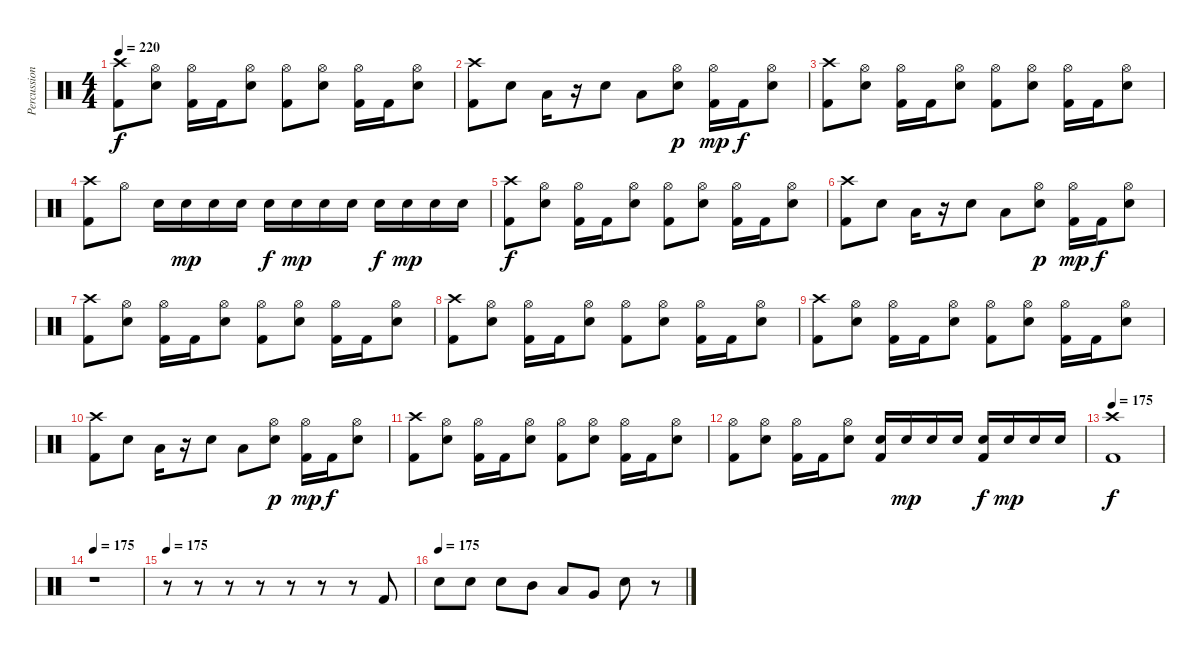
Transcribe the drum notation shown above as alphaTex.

\track ("Percussions" "Percussion") {instrument percussion}
\staff {score}
\articulation defaults
\ts (4 4)
\tempo 220
\clef neutral
\ks c
("Crash high (hit)" "Kick (hit) 2").8{dy f} ("Hi-Hat (open)" "Snare (hit) 2").8 ("Hi-Hat (open)" "Kick (hit) 2").16 "Kick (hit) 2".16 ("Hi-Hat (open)" "Snare (hit) 2").8 ("Hi-Hat (open)" "Kick (hit) 2").8 ("Hi-Hat (open)" "Snare (hit) 2").8 ("Hi-Hat (open)" "Kick (hit) 2").16 "Kick (hit) 2".16 ("Hi-Hat (open)" "Snare (hit) 2").8 |
("Crash high (hit)" "Kick (hit) 2").8 "Snare (hit) 2".8 "Low Tom (hit)".16 r.16 "Snare (hit) 2".8 "Low Tom (hit)".8 ("Hi-Hat (open)" "Snare (hit) 2").8{dy p} ("Hi-Hat (open)" "Kick (hit) 2").16{dy mp} "Kick (hit) 2".16{dy f} ("Hi-Hat (open)" "Snare (hit) 2").8 |
("Crash high (hit)" "Kick (hit) 2").8 ("Hi-Hat (open)" "Snare (hit) 2").8 ("Hi-Hat (open)" "Kick (hit) 2").16 "Kick (hit) 2".16 ("Hi-Hat (open)" "Snare (hit) 2").8 ("Hi-Hat (open)" "Kick (hit) 2").8 ("Hi-Hat (open)" "Snare (hit) 2").8 ("Hi-Hat (open)" "Kick (hit) 2").16 "Kick (hit) 2".16 ("Hi-Hat (open)" "Snare (hit) 2").8 |
("Crash high (hit)" "Kick (hit) 2").8 "Hi-Hat (open)".8 "Snare (hit) 2".16 "Snare (hit) 2".16{dy mp} "Snare (hit) 2".16 "Snare (hit) 2".16 "Snare (hit) 2".16{dy f} "Snare (hit) 2".16{dy mp} "Snare (hit) 2".16 "Snare (hit) 2".16 "Snare (hit) 2".16{dy f} "Snare (hit) 2".16{dy mp} "Snare (hit) 2".16 "Snare (hit) 2".16 |
("Crash high (hit)" "Kick (hit) 2").8{dy f} ("Hi-Hat (open)" "Snare (hit) 2").8 ("Hi-Hat (open)" "Kick (hit) 2").16 "Kick (hit) 2".16 ("Hi-Hat (open)" "Snare (hit) 2").8 ("Hi-Hat (open)" "Kick (hit) 2").8 ("Hi-Hat (open)" "Snare (hit) 2").8 ("Hi-Hat (open)" "Kick (hit) 2").16 "Kick (hit) 2".16 ("Hi-Hat (open)" "Snare (hit) 2").8 |
("Crash high (hit)" "Kick (hit) 2").8 "Snare (hit) 2".8 "Low Tom (hit)".16 r.16 "Snare (hit) 2".8 "Low Tom (hit)".8 ("Hi-Hat (open)" "Snare (hit) 2").8{dy p} ("Hi-Hat (open)" "Kick (hit) 2").16{dy mp} "Kick (hit) 2".16{dy f} ("Hi-Hat (open)" "Snare (hit) 2").8 |
("Crash high (hit)" "Kick (hit) 2").8 ("Hi-Hat (open)" "Snare (hit) 2").8 ("Hi-Hat (open)" "Kick (hit) 2").16 "Kick (hit) 2".16 ("Hi-Hat (open)" "Snare (hit) 2").8 ("Hi-Hat (open)" "Kick (hit) 2").8 ("Hi-Hat (open)" "Snare (hit) 2").8 ("Hi-Hat (open)" "Kick (hit) 2").16 "Kick (hit) 2".16 ("Hi-Hat (open)" "Snare (hit) 2").8 |
("Crash high (hit)" "Kick (hit) 2").8 ("Hi-Hat (open)" "Snare (hit) 2").8 ("Hi-Hat (open)" "Kick (hit) 2").16 "Kick (hit) 2".16 ("Hi-Hat (open)" "Snare (hit) 2").8 ("Hi-Hat (open)" "Kick (hit) 2").8 ("Hi-Hat (open)" "Snare (hit) 2").8 ("Hi-Hat (open)" "Kick (hit) 2").16 "Kick (hit) 2".16 ("Hi-Hat (open)" "Snare (hit) 2").8 |
("Crash high (hit)" "Kick (hit) 2").8 ("Hi-Hat (open)" "Snare (hit) 2").8 ("Hi-Hat (open)" "Kick (hit) 2").16 "Kick (hit) 2".16 ("Hi-Hat (open)" "Snare (hit) 2").8 ("Hi-Hat (open)" "Kick (hit) 2").8 ("Hi-Hat (open)" "Snare (hit) 2").8 ("Hi-Hat (open)" "Kick (hit) 2").16 "Kick (hit) 2".16 ("Hi-Hat (open)" "Snare (hit) 2").8 |
("Crash high (hit)" "Kick (hit) 2").8 "Snare (hit) 2".8 "Low Tom (hit)".16 r.16 "Snare (hit) 2".8 "Low Tom (hit)".8 ("Hi-Hat (open)" "Snare (hit) 2").8{dy p} ("Hi-Hat (open)" "Kick (hit) 2").16{dy mp} "Kick (hit) 2".16{dy f} ("Hi-Hat (open)" "Snare (hit) 2").8 |
("Crash high (hit)" "Kick (hit) 2").8 ("Hi-Hat (open)" "Snare (hit) 2").8 ("Hi-Hat (open)" "Kick (hit) 2").16 "Kick (hit) 2".16 ("Hi-Hat (open)" "Snare (hit) 2").8 ("Hi-Hat (open)" "Kick (hit) 2").8 ("Hi-Hat (open)" "Snare (hit) 2").8 ("Hi-Hat (open)" "Kick (hit) 2").16 "Kick (hit) 2".16 ("Hi-Hat (open)" "Snare (hit) 2").8 |
("Hi-Hat (open)" "Kick (hit) 2").8 ("Hi-Hat (open)" "Snare (hit) 2").8 ("Hi-Hat (open)" "Kick (hit) 2").16 "Kick (hit) 2".16 ("Hi-Hat (open)" "Snare (hit) 2").8 ("Snare (hit) 2" "Kick (hit) 2").16 "Snare (hit) 2".16{dy mp} "Snare (hit) 2".16 "Snare (hit) 2".16 ("Snare (hit) 2" "Kick (hit) 2").16{dy f} "Snare (hit) 2".16{dy mp} "Snare (hit) 2".16 "Snare (hit) 2".16 |
\tempo 180
\tempo 175
("Crash high (hit)" "Kick (hit) 2").1{dy f} |
\tempo 175
r.1 |
\tempo 175
r.8 r.8 r.8 r.8 r.8 r.8 r.8 "Kick (hit) 2".8 |
\tempo (175)
"Snare (hit) 2".8 "Snare (hit) 2".8 "Snare (hit) 2".8 "Mid Tom (hit)".8 "Low Tom (hit)".8 "Very Low Tom (hit)".8 "Snare (hit) 2".8 r.8
